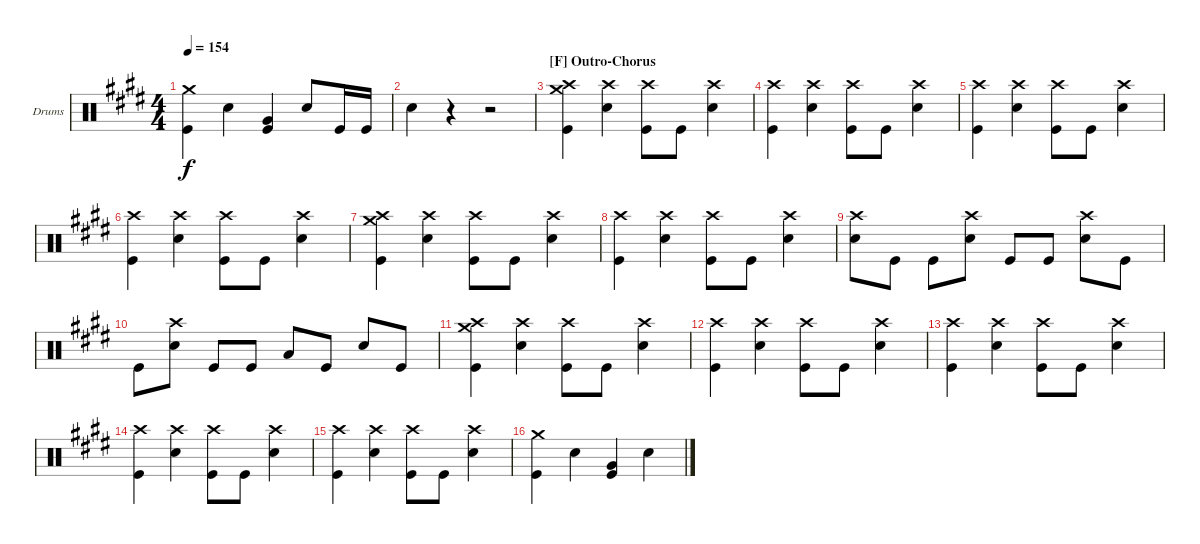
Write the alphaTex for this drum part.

\defaultSystemsLayout 4
\bracketExtendMode groupsimilarinstruments
\firstSystemTrackNameOrientation horizontal
\otherSystemsTrackNameOrientation horizontal
\track ("Jon Larsen" "Drums") {instrument percussion}
\staff {score}
\articulation defaults
\ts (4 4)
\tempo 154
\clef neutral
\scale
0.333333
\ks e
("Crash medium (hit)" "Kick (hit)").4{dy f} "Snare (hit) 2".4 ("Very Low Tom (hit)" "Kick (hit)").4 "Snare (hit) 2".8 "Kick (hit)".16 "Kick (hit)".16 |
\scale
0.333333 "Snare (hit) 2".4 r.4 r.2 |
\section ("F" "Outro-Chorus")
\scale
0.333333 ("Crash medium (hit)" "Crash high (hit)" "Kick (hit)").4 ("Crash high (hit)" "Snare (hit) 2").4 ("Crash high (hit)" "Kick (hit)").8 "Kick (hit)".8 ("Crash high (hit)" "Snare (hit) 2").4 |
\scale
0.333333 ("Crash high (hit)" "Kick (hit)").4 ("Crash high (hit)" "Snare (hit) 2").4 ("Crash high (hit)" "Kick (hit)").8 "Kick (hit)".8 ("Crash high (hit)" "Snare (hit) 2").4 |
\scale
0.333333 ("Crash high (hit)" "Kick (hit)").4 ("Crash high (hit)" "Snare (hit) 2").4 ("Crash high (hit)" "Kick (hit)").8 "Kick (hit)".8 ("Crash high (hit)" "Snare (hit) 2").4 |
\scale
0.333333 ("Crash high (hit)" "Kick (hit)").4 ("Crash high (hit)" "Snare (hit) 2").4 ("Crash high (hit)" "Kick (hit)").8 "Kick (hit)".8 ("Crash high (hit)" "Snare (hit) 2").4 |
\scale
0.333333 ("Crash medium (hit)" "Crash high (hit)" "Kick (hit)").4 ("Crash high (hit)" "Snare (hit) 2").4 ("Crash high (hit)" "Kick (hit)").8 "Kick (hit)".8 ("Crash high (hit)" "Snare (hit) 2").4 |
\scale
0.333333 ("Crash high (hit)" "Kick (hit)").4 ("Crash high (hit)" "Snare (hit) 2").4 ("Crash high (hit)" "Kick (hit)").8 "Kick (hit)".8 ("Crash high (hit)" "Snare (hit) 2").4 |
\scale
0.333333 ("Crash high (hit)" "Snare (hit) 2").8 "Kick (hit)".8 "Kick (hit)".8 ("Crash high (hit)" "Snare (hit) 2").8 "Kick (hit)".8 "Kick (hit)".8 ("Crash high (hit)" "Snare (hit) 2").8 "Kick (hit)".8 |
\scale
0.333333 "Kick (hit)".8 ("Crash high (hit)" "Snare (hit) 2").8 "Kick (hit)".8 "Kick (hit)".8 "Low Tom (hit)".8 "Kick (hit)".8 "Snare (hit) 2".8 "Kick (hit)".8 |
\scale
0.333333 ("Crash medium (hit)" "Crash high (hit)" "Kick (hit)").4 ("Crash high (hit)" "Snare (hit) 2").4 ("Crash high (hit)" "Kick (hit)").8 "Kick (hit)".8 ("Crash high (hit)" "Snare (hit) 2").4 |
\scale
0.333333 ("Crash high (hit)" "Kick (hit)").4 ("Crash high (hit)" "Snare (hit) 2").4 ("Crash high (hit)" "Kick (hit)").8 "Kick (hit)".8 ("Crash high (hit)" "Snare (hit) 2").4 |
\scale
0.333333 ("Crash high (hit)" "Kick (hit)").4 ("Crash high (hit)" "Snare (hit) 2").4 ("Crash high (hit)" "Kick (hit)").8 "Kick (hit)".8 ("Crash high (hit)" "Snare (hit) 2").4 |
\scale
0.333333 ("Crash high (hit)" "Kick (hit)").4 ("Crash high (hit)" "Snare (hit) 2").4 ("Crash high (hit)" "Kick (hit)").8 "Kick (hit)".8 ("Crash high (hit)" "Snare (hit) 2").4 |
\scale
0.333333 ("Crash high (hit)" "Kick (hit)").4 ("Crash high (hit)" "Snare (hit) 2").4 ("Crash high (hit)" "Kick (hit)").8 "Kick (hit)".8 ("Crash high (hit)" "Snare (hit) 2").4 |
\scale
0.333333 ("Crash medium (hit)" "Kick (hit)").4 "Snare (hit) 2".4 ("Very Low Tom (hit)" "Kick (hit)").4 "Snare (hit) 2".4
